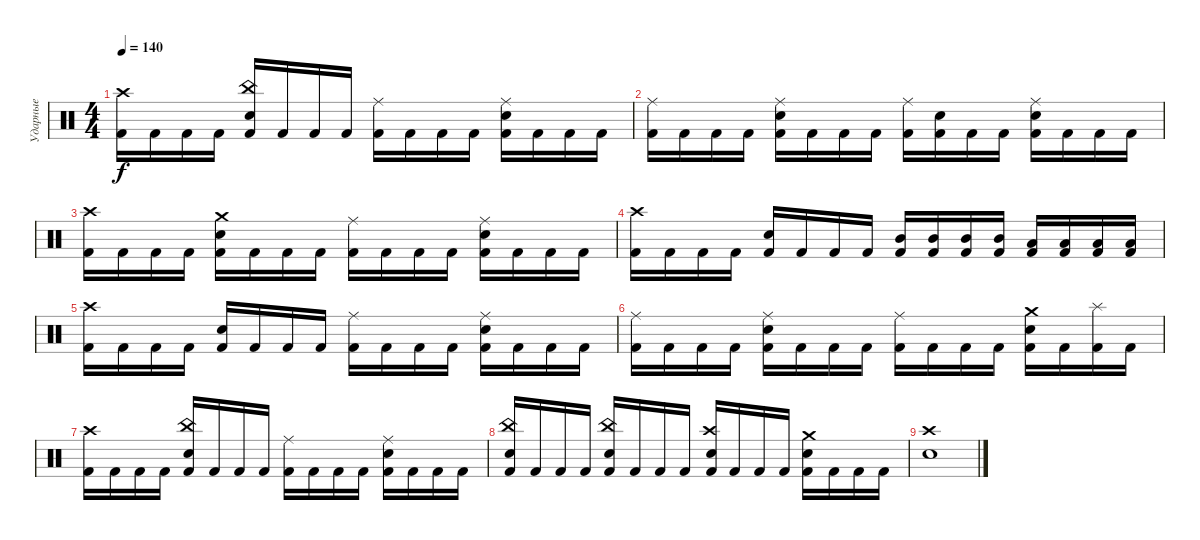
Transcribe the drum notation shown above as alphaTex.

\track ("Ударные" "Ударные") {instrument percussion}
\staff {score}
\articulation defaults
\ts (4 4)
\tempo 140
\clef neutral
\ks c
("Kick (hit) 2" "Crash high (hit)").16{dy f} "Kick (hit) 2".16 "Kick (hit) 2".16 "Kick (hit) 2".16 ("Kick (hit) 2" "China (hit)" "Electric Snare (hit)").16 "Kick (hit) 2".16 "Kick (hit) 2".16 "Kick (hit) 2".16 ("Kick (hit) 2" "Ride (middle)").16 "Kick (hit) 2".16 "Kick (hit) 2".16 "Kick (hit) 2".16 ("Kick (hit) 2" "Ride (middle)" "Electric Snare (hit)").16 "Kick (hit) 2".16 "Kick (hit) 2".16 "Kick (hit) 2".16 |
("Kick (hit) 2" "Ride (middle)").16 "Kick (hit) 2".16 "Kick (hit) 2".16 "Kick (hit) 2".16 ("Kick (hit) 2" "Ride (middle)" "Electric Snare (hit)").16 "Kick (hit) 2".16 "Kick (hit) 2".16 "Kick (hit) 2".16 ("Kick (hit) 2" "Ride (middle)").16 ("Kick (hit) 2" "Electric Snare (hit)").16 "Kick (hit) 2".16 "Kick (hit) 2".16 ("Kick (hit) 2" "Ride (middle)" "Electric Snare (hit)").16 "Kick (hit) 2".16 "Kick (hit) 2".16 "Kick (hit) 2".16 |
("Kick (hit) 2" "Crash high (hit)").16 "Kick (hit) 2".16 "Kick (hit) 2".16 "Kick (hit) 2".16 ("Kick (hit) 2" "Crash medium (hit)" "Electric Snare (hit)").16 "Kick (hit) 2".16 "Kick (hit) 2".16 "Kick (hit) 2".16 ("Kick (hit) 2" "Ride (middle)").16 "Kick (hit) 2".16 "Kick (hit) 2".16 "Kick (hit) 2".16 ("Kick (hit) 2" "Ride (middle)" "Electric Snare (hit)").16 "Kick (hit) 2".16 "Kick (hit) 2".16 "Kick (hit) 2".16 |
("Kick (hit) 2" "Crash high (hit)").16 "Kick (hit) 2".16 "Kick (hit) 2".16 "Kick (hit) 2".16 ("Kick (hit) 2" "Electric Snare (hit)").16 "Kick (hit) 2".16 "Kick (hit) 2".16 "Kick (hit) 2".16 ("Kick (hit) 2" "Mid Tom (hit)").16 ("Kick (hit) 2" "Mid Tom (hit)").16 ("Kick (hit) 2" "Mid Tom (hit)").16 ("Kick (hit) 2" "Mid Tom (hit)").16 ("Kick (hit) 2" "Low Tom (hit)").16 ("Kick (hit) 2" "Low Tom (hit)").16 ("Kick (hit) 2" "Low Tom (hit)").16 ("Kick (hit) 2" "Low Tom (hit)").16 |
("Kick (hit) 2" "Crash high (hit)").16 "Kick (hit) 2".16 "Kick (hit) 2".16 "Kick (hit) 2".16 ("Kick (hit) 2" "Electric Snare (hit)").16 "Kick (hit) 2".16 "Kick (hit) 2".16 "Kick (hit) 2".16 ("Kick (hit) 2" "Ride (middle)").16 "Kick (hit) 2".16 "Kick (hit) 2".16 "Kick (hit) 2".16 ("Kick (hit) 2" "Ride (middle)" "Electric Snare (hit)").16 "Kick (hit) 2".16 "Kick (hit) 2".16 "Kick (hit) 2".16 |
("Kick (hit) 2" "Ride (middle)").16 "Kick (hit) 2".16 "Kick (hit) 2".16 "Kick (hit) 2".16 ("Kick (hit) 2" "Ride (middle)" "Electric Snare (hit)").16 "Kick (hit) 2".16 "Kick (hit) 2".16 "Kick (hit) 2".16 ("Kick (hit) 2" "Ride (middle)").16 "Kick (hit) 2".16 "Kick (hit) 2".16 "Kick (hit) 2".16 ("Kick (hit) 2" "Crash medium (hit)" "Electric Snare (hit)").16 "Kick (hit) 2".16 ("Kick (hit) 2" "Splash (hit)").16 "Kick (hit) 2".16 |
("Kick (hit) 2" "Crash high (hit)").16 "Kick (hit) 2".16 "Kick (hit) 2".16 "Kick (hit) 2".16 ("Kick (hit) 2" "China (hit)" "Electric Snare (hit)").16 "Kick (hit) 2".16 "Kick (hit) 2".16 "Kick (hit) 2".16 ("Kick (hit) 2" "Ride (middle)").16 "Kick (hit) 2".16 "Kick (hit) 2".16 "Kick (hit) 2".16 ("Kick (hit) 2" "Ride (middle)" "Electric Snare (hit)").16 "Kick (hit) 2".16 "Kick (hit) 2".16 "Kick (hit) 2".16 |
("Kick (hit) 2" "Electric Snare (hit)" "China (hit)").16 "Kick (hit) 2".16 "Kick (hit) 2".16 "Kick (hit) 2".16 ("Kick (hit) 2" "Electric Snare (hit)" "China (hit)").16 "Kick (hit) 2".16 "Kick (hit) 2".16 "Kick (hit) 2".16 ("Kick (hit) 2" "Electric Snare (hit)" "Crash high (hit)").16 "Kick (hit) 2".16 "Kick (hit) 2".16 "Kick (hit) 2".16 ("Kick (hit) 2" "Electric Snare (hit)" "Crash medium (hit)").16 "Kick (hit) 2".16 "Kick (hit) 2".16 "Kick (hit) 2".16 |
("Crash high (hit)" "Electric Snare (hit)").1
